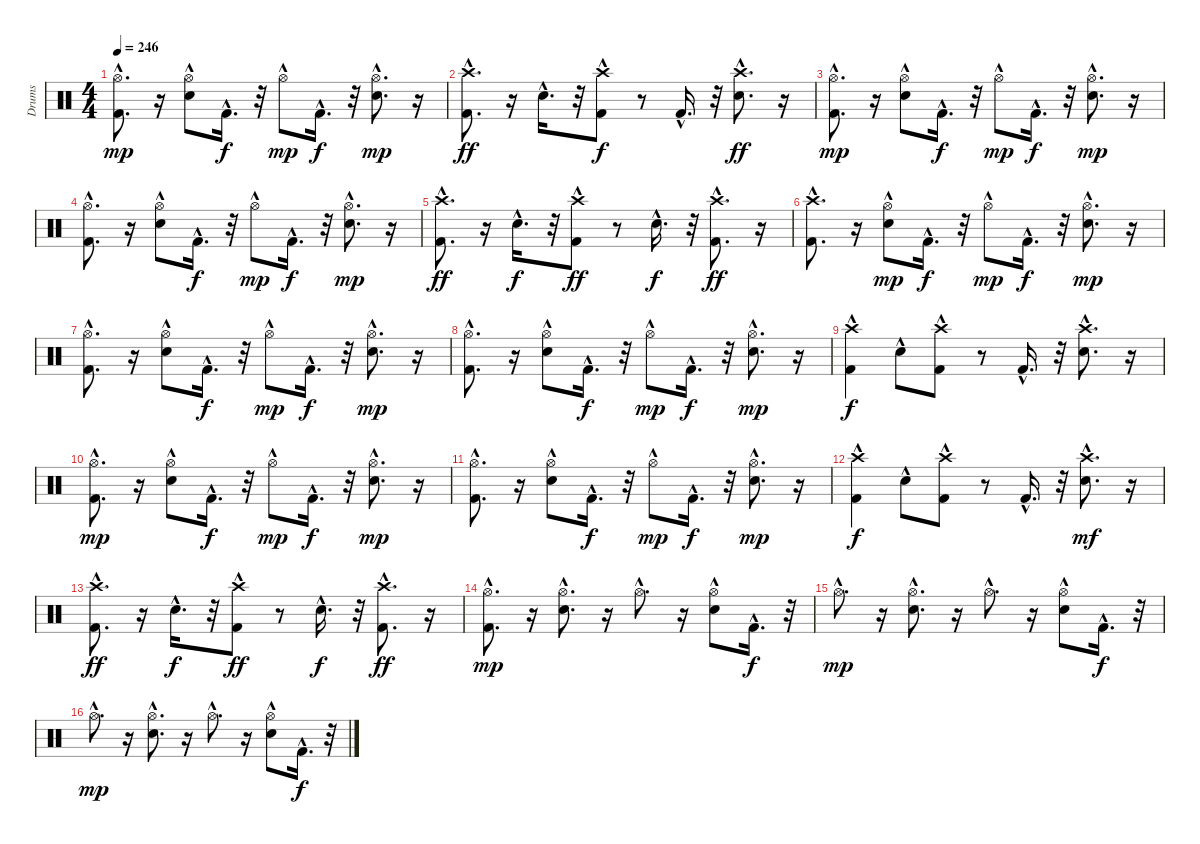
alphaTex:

\track ("Drums" "Drums") {instrument percussion}
\staff {score}
\articulation defaults
\ts (4 4)
\tempo 246
\clef neutral
\ks c
("Kick (hit) 2"{hac} "Hi-Hat (open)"{hac}).8{d dy mp} r.16 ("Electric Snare (hit)"{hac} "Hi-Hat (open)"{hac}).8 "Kick (hit) 2"{hac}.16{d dy f} r.32 "Hi-Hat (open)"{hac}.8{dy mp} "Kick (hit) 2"{hac}.16{d dy f} r.32 ("Electric Snare (hit)"{hac} "Hi-Hat (open)"{hac}).8{d dy mp} r.16 |
("Kick (hit) 2"{hac} "Crash high (hit)"{hac}).8{d dy ff} r.16 "Electric Snare (hit)"{hac}.16{d} r.32 ("Kick (hit) 2"{hac} "Crash high (hit)").8{dy f} r.8 "Kick (hit) 2"{hac}.16{d} r.32 ("Electric Snare (hit)"{hac} "Crash high (hit)"{hac}).8{d dy ff} r.16 |
("Kick (hit) 2"{hac} "Hi-Hat (open)"{hac}).8{d dy mp} r.16 ("Electric Snare (hit)"{hac} "Hi-Hat (open)"{hac}).8 "Kick (hit) 2"{hac}.16{d dy f} r.32 "Hi-Hat (open)"{hac}.8{dy mp} "Kick (hit) 2"{hac}.16{d dy f} r.32 ("Electric Snare (hit)"{hac} "Hi-Hat (open)"{hac}).8{d dy mp} r.16 |
("Kick (hit) 2"{hac} "Hi-Hat (open)"{hac}).8{d} r.16 ("Electric Snare (hit)"{hac} "Hi-Hat (open)"{hac}).8 "Kick (hit) 2"{hac}.16{d dy f} r.32 "Hi-Hat (open)"{hac}.8{dy mp} "Kick (hit) 2"{hac}.16{d dy f} r.32 ("Electric Snare (hit)"{hac} "Hi-Hat (open)"{hac}).8{d dy mp} r.16 |
("Kick (hit) 2"{hac} "Crash high (hit)"{hac}).8{d dy ff} r.16 "Electric Snare (hit)"{hac}.16{d dy f} r.32 ("Kick (hit) 2"{hac} "Crash high (hit)").8{dy ff} r.8 "Electric Snare (hit)"{hac}.16{d dy f} r.32 ("Kick (hit) 2"{hac} "Crash high (hit)"{hac}).8{d dy ff} r.16 |
("Kick (hit) 2"{hac} "Crash high (hit)"{hac}).8{d} r.16 ("Electric Snare (hit)"{hac} "Hi-Hat (open)"{hac}).8{dy mp} "Kick (hit) 2"{hac}.16{d dy f} r.32 "Hi-Hat (open)"{hac}.8{dy mp} "Kick (hit) 2"{hac}.16{d dy f} r.32 ("Electric Snare (hit)"{hac} "Hi-Hat (open)"{hac}).8{d dy mp} r.16 |
("Kick (hit) 2"{hac} "Hi-Hat (open)"{hac}).8{d} r.16 ("Electric Snare (hit)"{hac} "Hi-Hat (open)"{hac}).8 "Kick (hit) 2"{hac}.16{d dy f} r.32 "Hi-Hat (open)"{hac}.8{dy mp} "Kick (hit) 2"{hac}.16{d dy f} r.32 ("Electric Snare (hit)"{hac} "Hi-Hat (open)"{hac}).8{d dy mp} r.16 |
("Kick (hit) 2"{hac} "Hi-Hat (open)"{hac}).8{d} r.16 ("Electric Snare (hit)"{hac} "Hi-Hat (open)"{hac}).8 "Kick (hit) 2"{hac}.16{d dy f} r.32 "Hi-Hat (open)"{hac}.8{dy mp} "Kick (hit) 2"{hac}.16{d dy f} r.32 ("Electric Snare (hit)"{hac} "Hi-Hat (open)"{hac}).8{d dy mp} r.16 |
("Kick (hit) 2"{hac} "Crash high (hit)").4{dy f} "Electric Snare (hit)"{hac}.8 ("Kick (hit) 2"{hac} "Crash high (hit)").8 r.8 "Kick (hit) 2"{hac}.16{d} r.32 ("Crash high (hit)"{hac} "Electric Snare (hit)"{hac}).8{d} r.16 |
("Kick (hit) 2"{hac} "Hi-Hat (open)"{hac}).8{d dy mp} r.16 ("Electric Snare (hit)"{hac} "Hi-Hat (open)"{hac}).8 "Kick (hit) 2"{hac}.16{d dy f} r.32 "Hi-Hat (open)"{hac}.8{dy mp} "Kick (hit) 2"{hac}.16{d dy f} r.32 ("Electric Snare (hit)"{hac} "Hi-Hat (open)"{hac}).8{d dy mp} r.16 |
("Kick (hit) 2"{hac} "Hi-Hat (open)"{hac}).8{d} r.16 ("Electric Snare (hit)"{hac} "Hi-Hat (open)"{hac}).8 "Kick (hit) 2"{hac}.16{d dy f} r.32 "Hi-Hat (open)"{hac}.8{dy mp} "Kick (hit) 2"{hac}.16{d dy f} r.32 ("Electric Snare (hit)"{hac} "Hi-Hat (open)"{hac}).8{d dy mp} r.16 |
("Kick (hit) 2"{hac} "Crash high (hit)").4{dy f} "Electric Snare (hit)"{hac}.8 ("Kick (hit) 2"{hac} "Crash high (hit)").8 r.8 "Kick (hit) 2"{hac}.16{d} r.32 ("Crash high (hit)"{hac} "Electric Snare (hit)"{hac}).8{d dy mf} r.16 |
("Kick (hit) 2"{hac} "Crash high (hit)"{hac}).8{d dy ff} r.16 "Electric Snare (hit)"{hac}.16{d dy f} r.32 ("Kick (hit) 2"{hac} "Crash high (hit)").8{dy ff} r.8 "Electric Snare (hit)"{hac}.16{d dy f} r.32 ("Kick (hit) 2"{hac} "Crash high (hit)"{hac}).8{d dy ff} r.16 |
("Kick (hit) 2"{hac} "Hi-Hat (open)"{hac}).8{d dy mp} r.16 ("Electric Snare (hit)"{hac} "Hi-Hat (open)"{hac}).8{d} r.16 "Hi-Hat (open)"{hac}.8{d} r.16 ("Hi-Hat (open)"{hac} "Electric Snare (hit)"{hac}).8 "Kick (hit) 2"{hac}.16{d dy f} r.32 |
"Hi-Hat (open)"{hac}.8{d dy mp} r.16 ("Hi-Hat (open)"{hac} "Electric Snare (hit)"{hac}).8{d} r.16 "Hi-Hat (open)"{hac}.8{d} r.16 ("Hi-Hat (open)"{hac} "Electric Snare (hit)"{hac}).8 "Kick (hit) 2"{hac}.16{d dy f} r.32 |
"Hi-Hat (open)"{hac}.8{d dy mp} r.16 ("Hi-Hat (open)"{hac} "Electric Snare (hit)"{hac}).8{d} r.16 "Hi-Hat (open)"{hac}.8{d} r.16 ("Hi-Hat (open)"{hac} "Electric Snare (hit)"{hac}).8 "Kick (hit) 2"{hac}.16{d dy f} r.32
